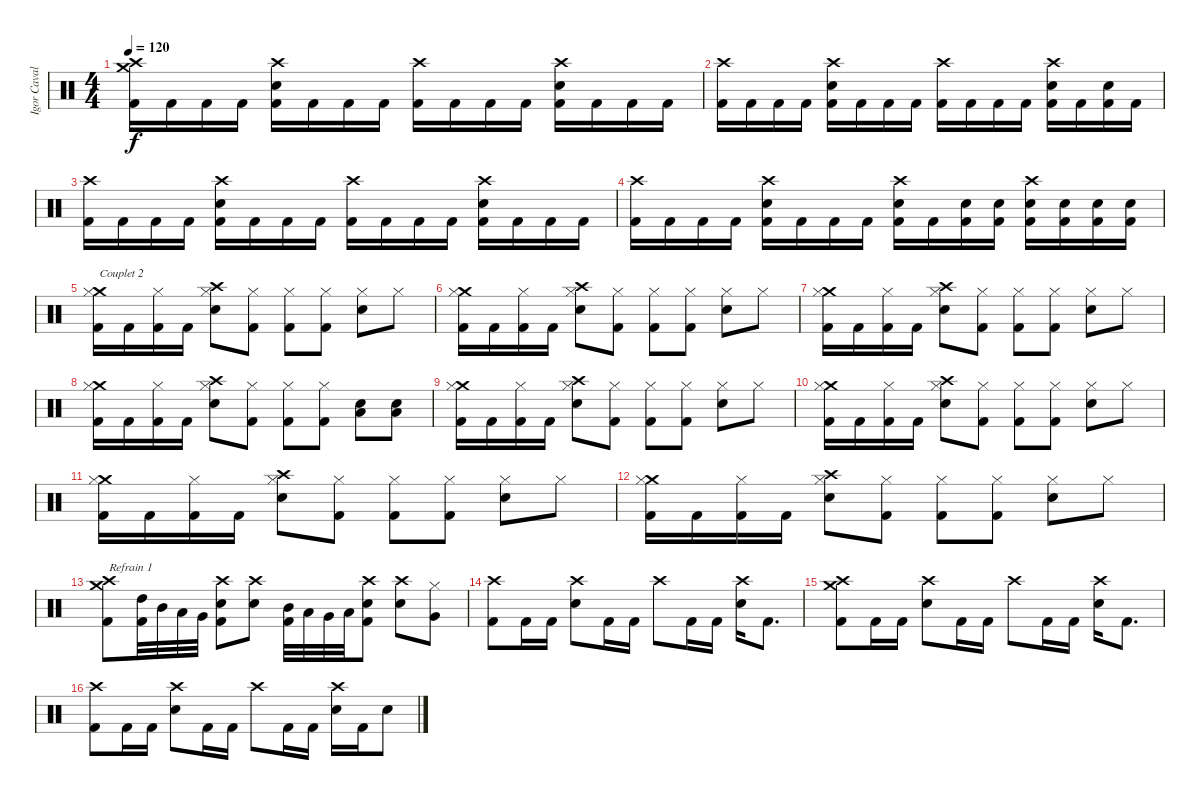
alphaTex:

\track ("Igor Cavalera" "Igor Caval") {instrument percussion}
\staff {score}
\articulation defaults
\ts (4 4)
\tempo 120
\clef neutral
\ks c
("Crash medium (hit)" "Crash high (hit)" "Kick (hit) 2").16{dy f} "Kick (hit) 2".16 "Kick (hit) 2".16 "Kick (hit) 2".16 ("Crash high (hit)" "Electric Snare (hit)" "Kick (hit) 2").16 "Kick (hit) 2".16 "Kick (hit) 2".16 "Kick (hit) 2".16 ("Crash high (hit)" "Kick (hit) 2").16 "Kick (hit) 2".16 "Kick (hit) 2".16 "Kick (hit) 2".16 ("Crash high (hit)" "Electric Snare (hit)" "Kick (hit) 2").16 "Kick (hit) 2".16 "Kick (hit) 2".16 "Kick (hit) 2".16 |
("Crash high (hit)" "Kick (hit) 2").16 "Kick (hit) 2".16 "Kick (hit) 2".16 "Kick (hit) 2".16 ("Crash high (hit)" "Electric Snare (hit)" "Kick (hit) 2").16 "Kick (hit) 2".16 "Kick (hit) 2".16 "Kick (hit) 2".16 ("Crash high (hit)" "Kick (hit) 2").16 "Kick (hit) 2".16 "Kick (hit) 2".16 "Kick (hit) 2".16 ("Crash high (hit)" "Electric Snare (hit)" "Kick (hit) 2").16 "Kick (hit) 2".16 ("Electric Snare (hit)" "Kick (hit) 2").16 "Kick (hit) 2".16 |
("Crash high (hit)" "Kick (hit) 2").16 "Kick (hit) 2".16 "Kick (hit) 2".16 "Kick (hit) 2".16 ("Crash high (hit)" "Electric Snare (hit)" "Kick (hit) 2").16 "Kick (hit) 2".16 "Kick (hit) 2".16 "Kick (hit) 2".16 ("Crash high (hit)" "Kick (hit) 2").16 "Kick (hit) 2".16 "Kick (hit) 2".16 "Kick (hit) 2".16 ("Crash high (hit)" "Electric Snare (hit)" "Kick (hit) 2").16 "Kick (hit) 2".16 "Kick (hit) 2".16 "Kick (hit) 2".16 |
("Crash high (hit)" "Kick (hit) 2").16 "Kick (hit) 2".16 "Kick (hit) 2".16 "Kick (hit) 2".16 ("Crash high (hit)" "Electric Snare (hit)" "Kick (hit) 2").16 "Kick (hit) 2".16 "Kick (hit) 2".16 "Kick (hit) 2".16 ("Crash high (hit)" "Electric Snare (hit)" "Kick (hit) 2").16 "Kick (hit) 2".16 ("Electric Snare (hit)" "Kick (hit) 2").16 ("Electric Snare (hit)" "Kick (hit) 2").16 ("Crash high (hit)" "Electric Snare (hit)" "Kick (hit) 2").16 ("Electric Snare (hit)" "Kick (hit) 2").16 ("Electric Snare (hit)" "Kick (hit) 2").16 ("Electric Snare (hit)" "Kick (hit) 2").16 |
("Crash medium (hit)" "Hi-Hat (closed)" "Kick (hit) 2").16{txt "Couplet 2"} "Kick (hit) 2".16 ("Hi-Hat (closed)" "Kick (hit) 2").16 "Kick (hit) 2".16 ("Crash high (hit)" "Electric Snare (hit)" "Hi-Hat (closed)").8 ("Hi-Hat (closed)" "Kick (hit) 2").8 ("Hi-Hat (closed)" "Kick (hit) 2").8 ("Hi-Hat (closed)" "Kick (hit) 2").8 ("Electric Snare (hit)" "Hi-Hat (closed)").8 "Hi-Hat (closed)".8 |
("Crash medium (hit)" "Hi-Hat (closed)" "Kick (hit) 2").16 "Kick (hit) 2".16 ("Hi-Hat (closed)" "Kick (hit) 2").16 "Kick (hit) 2".16 ("Crash high (hit)" "Electric Snare (hit)" "Hi-Hat (closed)").8 ("Hi-Hat (closed)" "Kick (hit) 2").8 ("Hi-Hat (closed)" "Kick (hit) 2").8 ("Hi-Hat (closed)" "Kick (hit) 2").8 ("Electric Snare (hit)" "Hi-Hat (closed)").8 "Hi-Hat (closed)".8 |
("Crash medium (hit)" "Hi-Hat (closed)" "Kick (hit) 2").16 "Kick (hit) 2".16 ("Hi-Hat (closed)" "Kick (hit) 2").16 "Kick (hit) 2".16 ("Crash high (hit)" "Electric Snare (hit)" "Hi-Hat (closed)").8 ("Hi-Hat (closed)" "Kick (hit) 2").8 ("Hi-Hat (closed)" "Kick (hit) 2").8 ("Hi-Hat (closed)" "Kick (hit) 2").8 ("Electric Snare (hit)" "Hi-Hat (closed)").8 "Hi-Hat (closed)".8 |
("Crash medium (hit)" "Hi-Hat (closed)" "Kick (hit) 2").16 "Kick (hit) 2".16 ("Hi-Hat (closed)" "Kick (hit) 2").16 "Kick (hit) 2".16 ("Crash high (hit)" "Electric Snare (hit)" "Hi-Hat (closed)").8 ("Hi-Hat (closed)" "Kick (hit) 2").8 ("Hi-Hat (closed)" "Kick (hit) 2").8 ("Hi-Hat (closed)" "Kick (hit) 2").8 ("Low Floor Tom (hit)" "Electric Snare (hit)").8 ("Low Floor Tom (hit)" "Electric Snare (hit)").8 |
("Crash medium (hit)" "Hi-Hat (closed)" "Kick (hit) 2").16 "Kick (hit) 2".16 ("Hi-Hat (closed)" "Kick (hit) 2").16 "Kick (hit) 2".16 ("Crash high (hit)" "Electric Snare (hit)" "Hi-Hat (closed)").8 ("Hi-Hat (closed)" "Kick (hit) 2").8 ("Hi-Hat (closed)" "Kick (hit) 2").8 ("Hi-Hat (closed)" "Kick (hit) 2").8 ("Electric Snare (hit)" "Hi-Hat (closed)").8 "Hi-Hat (closed)".8 |
("Crash medium (hit)" "Hi-Hat (closed)" "Kick (hit) 2").16 "Kick (hit) 2".16 ("Hi-Hat (closed)" "Kick (hit) 2").16 "Kick (hit) 2".16 ("Crash high (hit)" "Electric Snare (hit)" "Hi-Hat (closed)").8 ("Hi-Hat (closed)" "Kick (hit) 2").8 ("Hi-Hat (closed)" "Kick (hit) 2").8 ("Hi-Hat (closed)" "Kick (hit) 2").8 ("Electric Snare (hit)" "Hi-Hat (closed)").8 "Hi-Hat (closed)".8 |
("Crash medium (hit)" "Hi-Hat (closed)" "Kick (hit) 2").16 "Kick (hit) 2".16 ("Hi-Hat (closed)" "Kick (hit) 2").16 "Kick (hit) 2".16 ("Crash high (hit)" "Electric Snare (hit)" "Hi-Hat (closed)").8 ("Hi-Hat (closed)" "Kick (hit) 2").8 ("Hi-Hat (closed)" "Kick (hit) 2").8 ("Hi-Hat (closed)" "Kick (hit) 2").8 ("Electric Snare (hit)" "Hi-Hat (closed)").8 "Hi-Hat (closed)".8 |
("Crash medium (hit)" "Hi-Hat (closed)" "Kick (hit) 2").16 "Kick (hit) 2".16 ("Hi-Hat (closed)" "Kick (hit) 2").16 "Kick (hit) 2".16 ("Crash high (hit)" "Electric Snare (hit)" "Hi-Hat (closed)").8 ("Hi-Hat (closed)" "Kick (hit) 2").8 ("Hi-Hat (closed)" "Kick (hit) 2").8 ("Hi-Hat (closed)" "Kick (hit) 2").8 ("Electric Snare (hit)" "Hi-Hat (closed)").8 "Hi-Hat (closed)".8 |
("Crash medium (hit)" "Crash high (hit)" "Kick (hit) 2").8{txt "Refrain 1"} ("High Tom (hit)" "Kick (hit) 2").32 "Mid Tom (hit)".32 "Low Tom (hit)".32 "Very Low Tom (hit)".32 ("Crash high (hit)" "Electric Snare (hit)" "Kick (hit) 2").8 ("Crash high (hit)" "Electric Snare (hit)").8 ("Mid Tom (hit)" "Kick (hit) 2").32 "Low Tom (hit)".32 "Very Low Tom (hit)".32 "Low Floor Tom (hit)".32 ("Crash high (hit)" "Electric Snare (hit)" "Kick (hit) 2").8 ("Crash high (hit)" "Electric Snare (hit)").8 ("Very Low Tom (hit)" "Hi-Hat (closed)").8 |
("Crash high (hit)" "Kick (hit) 2").8 "Kick (hit) 2".16 "Kick (hit) 2".16 ("Crash high (hit)" "Electric Snare (hit)").8 "Kick (hit) 2".16 "Kick (hit) 2".16 "Crash high (hit)".8 "Kick (hit) 2".16 "Kick (hit) 2".16 ("Crash high (hit)" "Electric Snare (hit)").16 "Kick (hit) 2".8{d} |
("Crash medium (hit)" "Crash high (hit)" "Kick (hit) 2").8 "Kick (hit) 2".16 "Kick (hit) 2".16 ("Crash high (hit)" "Electric Snare (hit)").8 "Kick (hit) 2".16 "Kick (hit) 2".16 "Crash high (hit)".8 "Kick (hit) 2".16 "Kick (hit) 2".16 ("Crash high (hit)" "Electric Snare (hit)").16 "Kick (hit) 2".8{d} |
("Crash high (hit)" "Kick (hit) 2").8 "Kick (hit) 2".16 "Kick (hit) 2".16 ("Crash high (hit)" "Electric Snare (hit)").8 "Kick (hit) 2".16 "Kick (hit) 2".16 "Crash high (hit)".8 "Kick (hit) 2".16 "Kick (hit) 2".16 ("Crash high (hit)" "Electric Snare (hit)").16 "Kick (hit) 2".16 "Electric Snare (hit)".8
